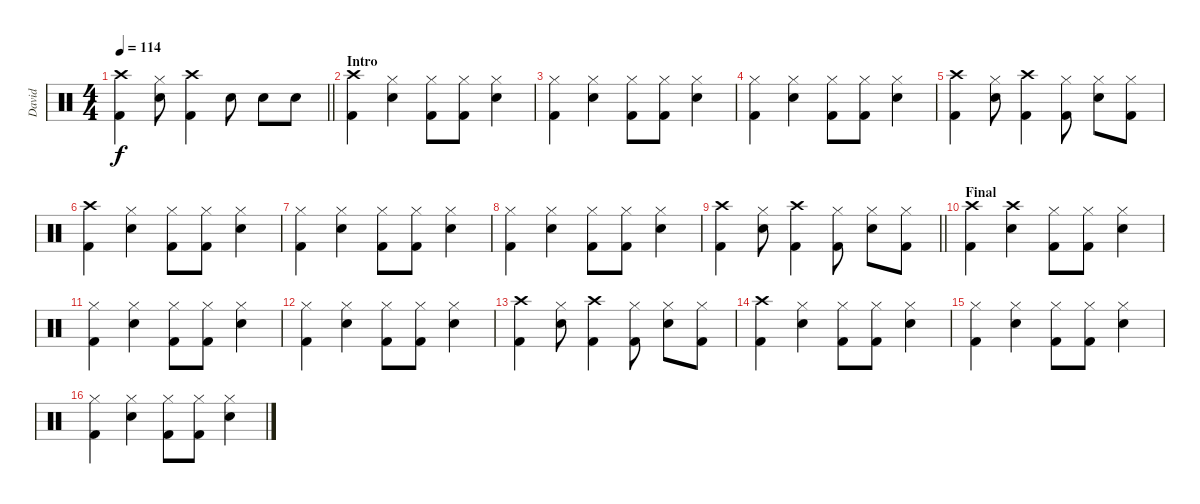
\track ("David" "David") {instrument percussion}
\staff {score}
\articulation defaults
\ts (4 4)
\tempo 114
\clef neutral
\barLineRight lightlight
\ks c
("Crash high (hit)" "Kick (hit) 2").4{dy f} ("Hi-Hat (closed)" "Snare (hit) 2").8 ("Crash high (hit)" "Kick (hit) 2").4 "Snare (hit) 2".8 "Snare (hit) 2".8 "Snare (hit) 2".8 |
\section ("" "Intro")
("Crash high (hit)" "Kick (hit) 2").4 ("Hi-Hat (closed)" "Snare (hit) 2").4 ("Hi-Hat (closed)" "Kick (hit) 2").8 ("Hi-Hat (closed)" "Kick (hit) 2").8 ("Hi-Hat (closed)" "Snare (hit) 2").4 |
("Hi-Hat (closed)" "Kick (hit) 2").4 ("Hi-Hat (closed)" "Snare (hit) 2").4 ("Hi-Hat (closed)" "Kick (hit) 2").8 ("Hi-Hat (closed)" "Kick (hit) 2").8 ("Hi-Hat (closed)" "Snare (hit) 2").4 |
("Hi-Hat (closed)" "Kick (hit) 2").4 ("Hi-Hat (closed)" "Snare (hit) 2").4 ("Hi-Hat (closed)" "Kick (hit) 2").8 ("Hi-Hat (closed)" "Kick (hit) 2").8 ("Hi-Hat (closed)" "Snare (hit) 2").4 |
("Crash high (hit)" "Kick (hit) 2").4 ("Hi-Hat (closed)" "Snare (hit) 2").8 ("Crash high (hit)" "Kick (hit) 2").4 ("Hi-Hat (closed)" "Kick (hit) 2").8 ("Hi-Hat (closed)" "Snare (hit) 2").8 ("Hi-Hat (closed)" "Kick (hit) 2").8 |
("Crash high (hit)" "Kick (hit) 2").4 ("Hi-Hat (closed)" "Snare (hit) 2").4 ("Hi-Hat (closed)" "Kick (hit) 2").8 ("Hi-Hat (closed)" "Kick (hit) 2").8 ("Hi-Hat (closed)" "Snare (hit) 2").4 |
("Hi-Hat (closed)" "Kick (hit) 2").4 ("Hi-Hat (closed)" "Snare (hit) 2").4 ("Hi-Hat (closed)" "Kick (hit) 2").8 ("Hi-Hat (closed)" "Kick (hit) 2").8 ("Hi-Hat (closed)" "Snare (hit) 2").4 |
("Hi-Hat (closed)" "Kick (hit) 2").4 ("Hi-Hat (closed)" "Snare (hit) 2").4 ("Hi-Hat (closed)" "Kick (hit) 2").8 ("Hi-Hat (closed)" "Kick (hit) 2").8 ("Hi-Hat (closed)" "Snare (hit) 2").4 |
\barLineRight lightlight
("Crash high (hit)" "Kick (hit) 2").4 ("Hi-Hat (closed)" "Snare (hit) 2").8 ("Crash high (hit)" "Kick (hit) 2").4 ("Hi-Hat (closed)" "Kick (hit) 2").8 ("Hi-Hat (closed)" "Snare (hit) 2").8 ("Hi-Hat (closed)" "Kick (hit) 2").8 |
\section ("" "Final")
("Crash high (hit)" "Kick (hit) 2").4 ("Crash high (hit)" "Snare (hit) 2").4 ("Hi-Hat (closed)" "Kick (hit) 2").8 ("Hi-Hat (closed)" "Kick (hit) 2").8 ("Hi-Hat (closed)" "Snare (hit) 2").4 |
("Hi-Hat (closed)" "Kick (hit) 2").4 ("Hi-Hat (closed)" "Snare (hit) 2").4 ("Hi-Hat (closed)" "Kick (hit) 2").8 ("Hi-Hat (closed)" "Kick (hit) 2").8 ("Hi-Hat (closed)" "Snare (hit) 2").4 |
("Hi-Hat (closed)" "Kick (hit) 2").4 ("Hi-Hat (closed)" "Snare (hit) 2").4 ("Hi-Hat (closed)" "Kick (hit) 2").8 ("Hi-Hat (closed)" "Kick (hit) 2").8 ("Hi-Hat (closed)" "Snare (hit) 2").4 |
("Crash high (hit)" "Kick (hit) 2").4 ("Hi-Hat (closed)" "Snare (hit) 2").8 ("Crash high (hit)" "Kick (hit) 2").4 ("Hi-Hat (closed)" "Kick (hit) 2").8 ("Hi-Hat (closed)" "Snare (hit) 2").8 ("Hi-Hat (closed)" "Kick (hit) 2").8 |
("Crash high (hit)" "Kick (hit) 2").4 ("Hi-Hat (closed)" "Snare (hit) 2").4 ("Hi-Hat (closed)" "Kick (hit) 2").8 ("Hi-Hat (closed)" "Kick (hit) 2").8 ("Hi-Hat (closed)" "Snare (hit) 2").4 |
("Hi-Hat (closed)" "Kick (hit) 2").4 ("Hi-Hat (closed)" "Snare (hit) 2").4 ("Hi-Hat (closed)" "Kick (hit) 2").8 ("Hi-Hat (closed)" "Kick (hit) 2").8 ("Hi-Hat (closed)" "Snare (hit) 2").4 |
("Hi-Hat (closed)" "Kick (hit) 2").4 ("Hi-Hat (closed)" "Snare (hit) 2").4 ("Hi-Hat (closed)" "Kick (hit) 2").8 ("Hi-Hat (closed)" "Kick (hit) 2").8 ("Hi-Hat (closed)" "Snare (hit) 2").4
